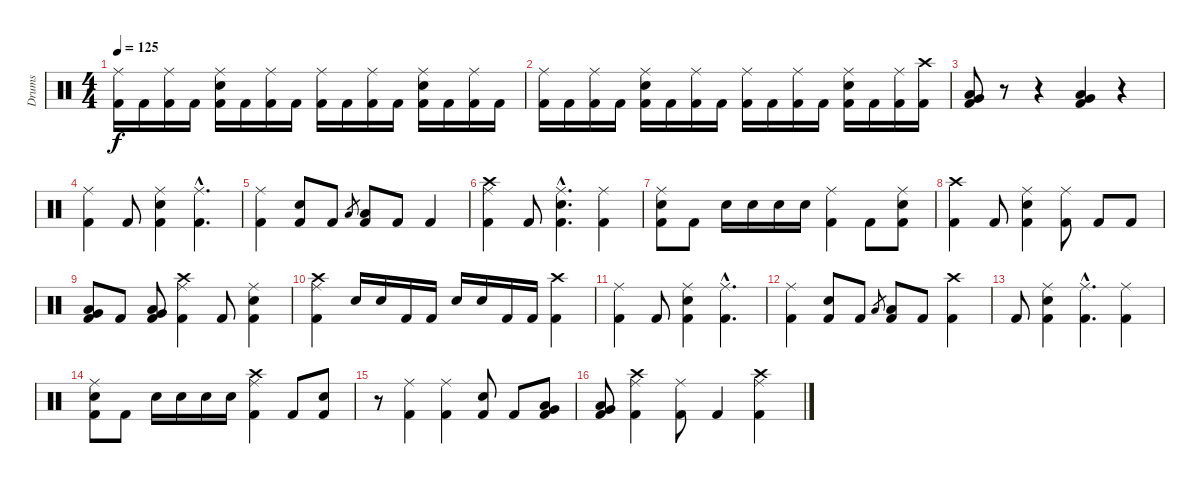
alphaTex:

\track ("Drums" "Drums") {instrument percussion}
\staff {score}
\articulation defaults
\ts (4 4)
\tempo 125
\clef neutral
\ks c
("Ride (middle)" "Kick (hit) 2").16{dy f} "Kick (hit) 2".16 ("Ride (middle)" "Kick (hit) 2").16 "Kick (hit) 2".16 ("Ride (middle)" "Electric Snare (hit)" "Kick (hit) 2").16 "Kick (hit) 2".16 ("Ride (middle)" "Kick (hit) 2").16 "Kick (hit) 2".16 ("Ride (middle)" "Kick (hit) 2").16 "Kick (hit) 2".16 ("Ride (middle)" "Kick (hit) 2").16 "Kick (hit) 2".16 ("Ride (middle)" "Electric Snare (hit)" "Kick (hit) 2").16 "Kick (hit) 2".16 ("Ride (middle)" "Kick (hit) 2").16 "Kick (hit) 2".16 |
("Ride (middle)" "Kick (hit) 2").16 "Kick (hit) 2".16 ("Ride (middle)" "Kick (hit) 2").16 "Kick (hit) 2".16 ("Ride (middle)" "Electric Snare (hit)" "Kick (hit) 2").16 "Kick (hit) 2".16 ("Ride (middle)" "Kick (hit) 2").16 "Kick (hit) 2".16 ("Ride (middle)" "Kick (hit) 2").16 "Kick (hit) 2".16 ("Ride (middle)" "Kick (hit) 2").16 "Kick (hit) 2".16 ("Ride (middle)" "Electric Snare (hit)" "Kick (hit) 2").16 "Kick (hit) 2".16 ("Ride (middle)" "Kick (hit) 2").16 ("Crash high (hit)" "Kick (hit) 2").16 |
("Low Floor Tom (hit)" "Very Low Tom (hit)" "Kick (hit) 2").8 r.8 r.4 ("Low Floor Tom (hit)" "Very Low Tom (hit)" "Kick (hit) 2").4 r.4 |
("Ride (middle)" "Kick (hit) 2").4 "Kick (hit) 2".8 ("Ride (middle)" "Electric Snare (hit)" "Kick (hit) 2").4 ("Ride (middle)"{hac} "Kick (hit) 2"{hac}).4{d} |
("Ride (middle)" "Kick (hit) 2").4 ("Electric Snare (hit)" "Kick (hit) 2").8 "Kick (hit) 2".8 "Low Tom (hit)".8{gr} ("Low Tom (hit)" "Kick (hit) 2").8 "Kick (hit) 2".8 "Kick (hit) 2".4 |
("Crash high (hit)" "Ride (middle)" "Kick (hit) 2").4 "Kick (hit) 2".8 ("Ride (middle)"{hac} "Electric Snare (hit)"{hac} "Kick (hit) 2"{hac}).4{d} ("Ride (middle)" "Kick (hit) 2").4 |
("Ride (middle)" "Electric Snare (hit)" "Kick (hit) 2").8 "Kick (hit) 2".8 "Electric Snare (hit)".16 "Electric Snare (hit)".16 "Electric Snare (hit)".16 "Electric Snare (hit)".16 ("Ride (middle)" "Kick (hit) 2").4 "Kick (hit) 2".8 ("Ride (middle)" "Electric Snare (hit)" "Kick (hit) 2").8 |
("Crash high (hit)" "Kick (hit) 2").4 "Kick (hit) 2".8 ("Ride (middle)" "Electric Snare (hit)" "Kick (hit) 2").4 ("Ride (middle)" "Kick (hit) 2").8 "Kick (hit) 2".8 "Kick (hit) 2".8 |
("Low Floor Tom (hit)" "Very Low Tom (hit)" "Kick (hit) 2").8 "Kick (hit) 2".8 ("Low Floor Tom (hit)" "Very Low Tom (hit)" "Kick (hit) 2").8 ("Crash high (hit)" "Ride (middle)" "Kick (hit) 2").4 "Kick (hit) 2".8 ("Ride (middle)" "Electric Snare (hit)" "Kick (hit) 2").4 |
("Ride (middle)" "Crash high (hit)" "Kick (hit) 2").4 "Electric Snare (hit)".16 "Electric Snare (hit)".16 "Kick (hit) 2".16 "Kick (hit) 2".16 "Electric Snare (hit)".16 "Electric Snare (hit)".16 "Kick (hit) 2".16 "Kick (hit) 2".16 ("Crash high (hit)" "Kick (hit) 2").4 |
("Ride (middle)" "Kick (hit) 2").4 "Kick (hit) 2".8 ("Ride (middle)" "Electric Snare (hit)" "Kick (hit) 2").4 ("Ride (middle)"{hac} "Kick (hit) 2"{hac}).4{d} |
("Ride (middle)" "Kick (hit) 2").4 ("Electric Snare (hit)" "Kick (hit) 2").8 "Kick (hit) 2".8 "Low Tom (hit)".8{gr} ("Low Tom (hit)" "Kick (hit) 2").8 "Kick (hit) 2".8 ("Crash high (hit)" "Kick (hit) 2").4 |
"Kick (hit) 2".8 ("Ride (middle)" "Electric Snare (hit)" "Kick (hit) 2").4 ("Ride (middle)"{hac} "Kick (hit) 2"{hac}).4{d} ("Ride (middle)" "Kick (hit) 2").4 |
("Ride (middle)" "Electric Snare (hit)" "Kick (hit) 2").8 "Kick (hit) 2".8 "Electric Snare (hit)".16 "Electric Snare (hit)".16 "Electric Snare (hit)".16 "Electric Snare (hit)".16 ("Crash high (hit)" "Ride (middle)" "Kick (hit) 2").4 "Kick (hit) 2".8 ("Electric Snare (hit)" "Kick (hit) 2").8 |
r.8 ("Ride (middle)" "Kick (hit) 2").4 ("Ride (middle)" "Kick (hit) 2").4 ("Electric Snare (hit)" "Kick (hit) 2").8 "Kick (hit) 2".8 ("Low Floor Tom (hit)" "Very Low Tom (hit)" "Kick (hit) 2").8 |
("Low Floor Tom (hit)" "Very Low Tom (hit)" "Kick (hit) 2").8 ("Crash high (hit)" "Ride (middle)" "Kick (hit) 2").4 ("Ride (middle)" "Kick (hit) 2").8 "Kick (hit) 2".4 ("Ride (middle)" "Crash high (hit)" "Kick (hit) 2").4
